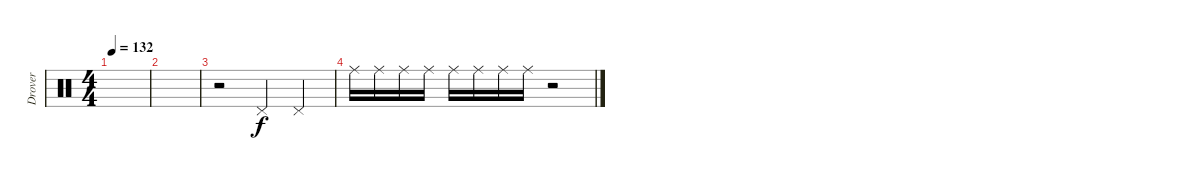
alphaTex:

\track ("Drover" "Drover") {instrument percussion}
\staff {score}
\articulation defaults
\ts (4 4)
\tempo 132
\clef neutral
\ks c
|
|
r.2 "Pedal Hi-Hat (hit)".4 "Pedal Hi-Hat (hit)".4 |
"Ride (middle)".16 "Ride (middle)".16 "Ride (middle)".16 "Ride (middle)".16 "Ride (middle)".16 "Ride (middle)".16 "Ride (middle)".16 "Ride (middle)".16 r.2
